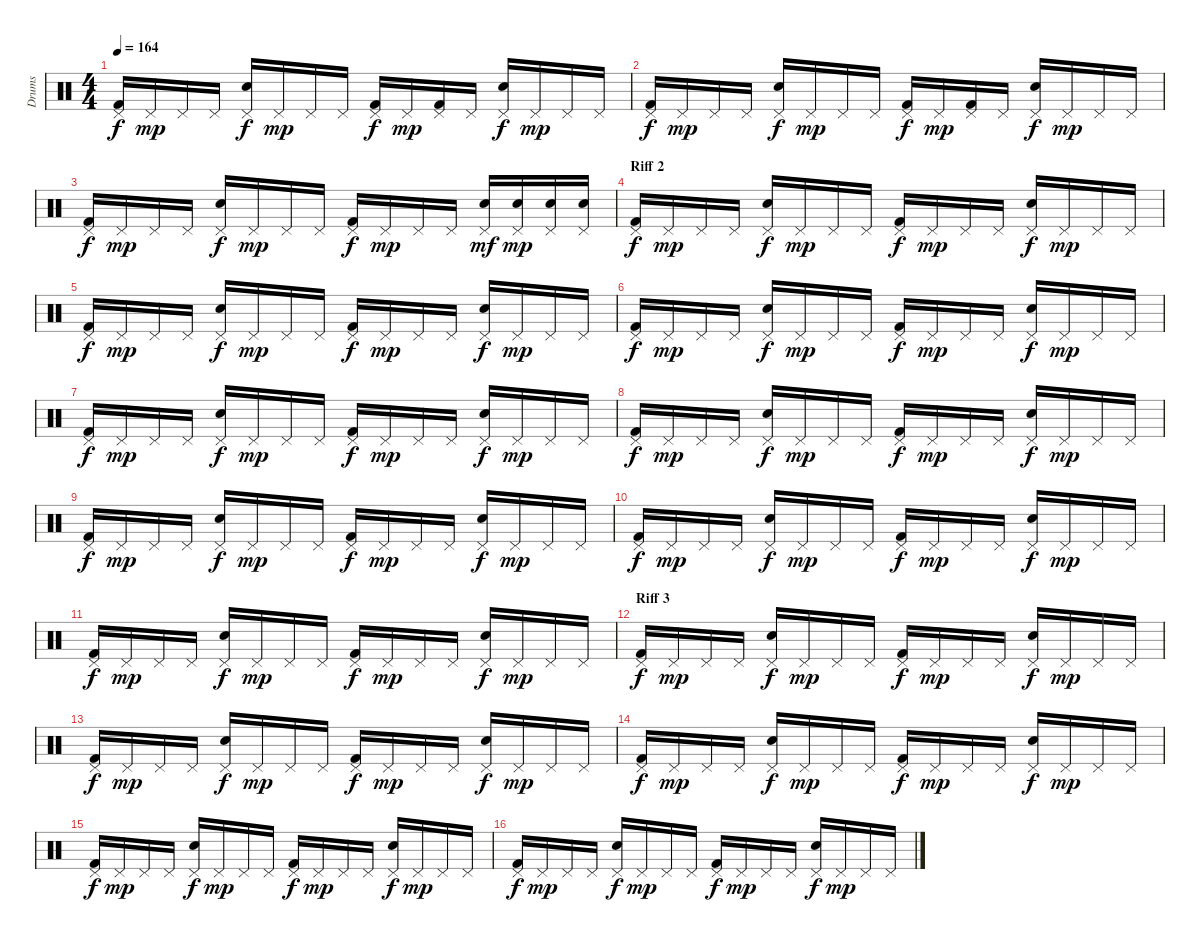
\track ("Drums" "Drums") {instrument percussion}
\staff {score}
\articulation defaults
\ts (4 4)
\tempo 164
\clef neutral
\ks c
("Pedal Hi-Hat (hit)" "Kick (hit) 2").16{dy f} "Pedal Hi-Hat (hit)".16{dy mp} "Pedal Hi-Hat (hit)".16 "Pedal Hi-Hat (hit)".16 ("Pedal Hi-Hat (hit)" "Snare (hit) 2").16{dy f} "Pedal Hi-Hat (hit)".16{dy mp} "Pedal Hi-Hat (hit)".16 "Pedal Hi-Hat (hit)".16 ("Pedal Hi-Hat (hit)" "Kick (hit) 2").16{dy f} "Pedal Hi-Hat (hit)".16{dy mp} ("Pedal Hi-Hat (hit)" "Kick (hit) 2").16 "Pedal Hi-Hat (hit)".16 ("Pedal Hi-Hat (hit)" "Snare (hit) 2").16{dy f} "Pedal Hi-Hat (hit)".16{dy mp} "Pedal Hi-Hat (hit)".16 "Pedal Hi-Hat (hit)".16 |
("Pedal Hi-Hat (hit)" "Kick (hit) 2").16{dy f} "Pedal Hi-Hat (hit)".16{dy mp} "Pedal Hi-Hat (hit)".16 "Pedal Hi-Hat (hit)".16 ("Pedal Hi-Hat (hit)" "Snare (hit) 2").16{dy f} "Pedal Hi-Hat (hit)".16{dy mp} "Pedal Hi-Hat (hit)".16 "Pedal Hi-Hat (hit)".16 ("Pedal Hi-Hat (hit)" "Kick (hit) 2").16{dy f} "Pedal Hi-Hat (hit)".16{dy mp} ("Pedal Hi-Hat (hit)" "Kick (hit) 2").16 "Pedal Hi-Hat (hit)".16 ("Pedal Hi-Hat (hit)" "Snare (hit) 2").16{dy f} "Pedal Hi-Hat (hit)".16{dy mp} "Pedal Hi-Hat (hit)".16 "Pedal Hi-Hat (hit)".16 |
("Pedal Hi-Hat (hit)" "Kick (hit) 2").16{dy f} "Pedal Hi-Hat (hit)".16{dy mp} "Pedal Hi-Hat (hit)".16 "Pedal Hi-Hat (hit)".16 ("Pedal Hi-Hat (hit)" "Snare (hit) 2").16{dy f} "Pedal Hi-Hat (hit)".16{dy mp} "Pedal Hi-Hat (hit)".16 "Pedal Hi-Hat (hit)".16 ("Pedal Hi-Hat (hit)" "Kick (hit) 2").16{dy f} "Pedal Hi-Hat (hit)".16{dy mp} "Pedal Hi-Hat (hit)".16 "Pedal Hi-Hat (hit)".16 ("Pedal Hi-Hat (hit)" "Snare (hit) 2").16{dy mf} ("Pedal Hi-Hat (hit)" "Snare (hit) 2").16{dy mp} ("Pedal Hi-Hat (hit)" "Snare (hit) 2").16 ("Pedal Hi-Hat (hit)" "Snare (hit) 2").16 |
\section ("" "Riff 2")
("Pedal Hi-Hat (hit)" "Kick (hit) 2").16{dy f} "Pedal Hi-Hat (hit)".16{dy mp} "Pedal Hi-Hat (hit)".16 "Pedal Hi-Hat (hit)".16 ("Pedal Hi-Hat (hit)" "Snare (hit) 2").16{dy f} "Pedal Hi-Hat (hit)".16{dy mp} "Pedal Hi-Hat (hit)".16 "Pedal Hi-Hat (hit)".16 ("Pedal Hi-Hat (hit)" "Kick (hit) 2").16{dy f} "Pedal Hi-Hat (hit)".16{dy mp} "Pedal Hi-Hat (hit)".16 "Pedal Hi-Hat (hit)".16 ("Pedal Hi-Hat (hit)" "Snare (hit) 2").16{dy f} "Pedal Hi-Hat (hit)".16{dy mp} "Pedal Hi-Hat (hit)".16 "Pedal Hi-Hat (hit)".16 |
("Pedal Hi-Hat (hit)" "Kick (hit) 2").16{dy f} "Pedal Hi-Hat (hit)".16{dy mp} "Pedal Hi-Hat (hit)".16 "Pedal Hi-Hat (hit)".16 ("Pedal Hi-Hat (hit)" "Snare (hit) 2").16{dy f} "Pedal Hi-Hat (hit)".16{dy mp} "Pedal Hi-Hat (hit)".16 "Pedal Hi-Hat (hit)".16 ("Pedal Hi-Hat (hit)" "Kick (hit) 2").16{dy f} "Pedal Hi-Hat (hit)".16{dy mp} "Pedal Hi-Hat (hit)".16 "Pedal Hi-Hat (hit)".16 ("Pedal Hi-Hat (hit)" "Snare (hit) 2").16{dy f} "Pedal Hi-Hat (hit)".16{dy mp} "Pedal Hi-Hat (hit)".16 "Pedal Hi-Hat (hit)".16 |
("Pedal Hi-Hat (hit)" "Kick (hit) 2").16{dy f} "Pedal Hi-Hat (hit)".16{dy mp} "Pedal Hi-Hat (hit)".16 "Pedal Hi-Hat (hit)".16 ("Pedal Hi-Hat (hit)" "Snare (hit) 2").16{dy f} "Pedal Hi-Hat (hit)".16{dy mp} "Pedal Hi-Hat (hit)".16 "Pedal Hi-Hat (hit)".16 ("Pedal Hi-Hat (hit)" "Kick (hit) 2").16{dy f} "Pedal Hi-Hat (hit)".16{dy mp} "Pedal Hi-Hat (hit)".16 "Pedal Hi-Hat (hit)".16 ("Pedal Hi-Hat (hit)" "Snare (hit) 2").16{dy f} "Pedal Hi-Hat (hit)".16{dy mp} "Pedal Hi-Hat (hit)".16 "Pedal Hi-Hat (hit)".16 |
("Pedal Hi-Hat (hit)" "Kick (hit) 2").16{dy f} "Pedal Hi-Hat (hit)".16{dy mp} "Pedal Hi-Hat (hit)".16 "Pedal Hi-Hat (hit)".16 ("Pedal Hi-Hat (hit)" "Snare (hit) 2").16{dy f} "Pedal Hi-Hat (hit)".16{dy mp} "Pedal Hi-Hat (hit)".16 "Pedal Hi-Hat (hit)".16 ("Pedal Hi-Hat (hit)" "Kick (hit) 2").16{dy f} "Pedal Hi-Hat (hit)".16{dy mp} "Pedal Hi-Hat (hit)".16 "Pedal Hi-Hat (hit)".16 ("Pedal Hi-Hat (hit)" "Snare (hit) 2").16{dy f} "Pedal Hi-Hat (hit)".16{dy mp} "Pedal Hi-Hat (hit)".16 "Pedal Hi-Hat (hit)".16 |
("Pedal Hi-Hat (hit)" "Kick (hit) 2").16{dy f} "Pedal Hi-Hat (hit)".16{dy mp} "Pedal Hi-Hat (hit)".16 "Pedal Hi-Hat (hit)".16 ("Pedal Hi-Hat (hit)" "Snare (hit) 2").16{dy f} "Pedal Hi-Hat (hit)".16{dy mp} "Pedal Hi-Hat (hit)".16 "Pedal Hi-Hat (hit)".16 ("Pedal Hi-Hat (hit)" "Kick (hit) 2").16{dy f} "Pedal Hi-Hat (hit)".16{dy mp} "Pedal Hi-Hat (hit)".16 "Pedal Hi-Hat (hit)".16 ("Pedal Hi-Hat (hit)" "Snare (hit) 2").16{dy f} "Pedal Hi-Hat (hit)".16{dy mp} "Pedal Hi-Hat (hit)".16 "Pedal Hi-Hat (hit)".16 |
("Pedal Hi-Hat (hit)" "Kick (hit) 2").16{dy f} "Pedal Hi-Hat (hit)".16{dy mp} "Pedal Hi-Hat (hit)".16 "Pedal Hi-Hat (hit)".16 ("Pedal Hi-Hat (hit)" "Snare (hit) 2").16{dy f} "Pedal Hi-Hat (hit)".16{dy mp} "Pedal Hi-Hat (hit)".16 "Pedal Hi-Hat (hit)".16 ("Pedal Hi-Hat (hit)" "Kick (hit) 2").16{dy f} "Pedal Hi-Hat (hit)".16{dy mp} "Pedal Hi-Hat (hit)".16 "Pedal Hi-Hat (hit)".16 ("Pedal Hi-Hat (hit)" "Snare (hit) 2").16{dy f} "Pedal Hi-Hat (hit)".16{dy mp} "Pedal Hi-Hat (hit)".16 "Pedal Hi-Hat (hit)".16 |
("Pedal Hi-Hat (hit)" "Kick (hit) 2").16{dy f} "Pedal Hi-Hat (hit)".16{dy mp} "Pedal Hi-Hat (hit)".16 "Pedal Hi-Hat (hit)".16 ("Pedal Hi-Hat (hit)" "Snare (hit) 2").16{dy f} "Pedal Hi-Hat (hit)".16{dy mp} "Pedal Hi-Hat (hit)".16 "Pedal Hi-Hat (hit)".16 ("Pedal Hi-Hat (hit)" "Kick (hit) 2").16{dy f} "Pedal Hi-Hat (hit)".16{dy mp} "Pedal Hi-Hat (hit)".16 "Pedal Hi-Hat (hit)".16 ("Pedal Hi-Hat (hit)" "Snare (hit) 2").16{dy f} "Pedal Hi-Hat (hit)".16{dy mp} "Pedal Hi-Hat (hit)".16 "Pedal Hi-Hat (hit)".16 |
("Pedal Hi-Hat (hit)" "Kick (hit) 2").16{dy f} "Pedal Hi-Hat (hit)".16{dy mp} "Pedal Hi-Hat (hit)".16 "Pedal Hi-Hat (hit)".16 ("Pedal Hi-Hat (hit)" "Snare (hit) 2").16{dy f} "Pedal Hi-Hat (hit)".16{dy mp} "Pedal Hi-Hat (hit)".16 "Pedal Hi-Hat (hit)".16 ("Pedal Hi-Hat (hit)" "Kick (hit) 2").16{dy f} "Pedal Hi-Hat (hit)".16{dy mp} "Pedal Hi-Hat (hit)".16 "Pedal Hi-Hat (hit)".16 ("Pedal Hi-Hat (hit)" "Snare (hit) 2").16{dy f} "Pedal Hi-Hat (hit)".16{dy mp} "Pedal Hi-Hat (hit)".16 "Pedal Hi-Hat (hit)".16 |
\section ("" "Riff 3")
("Pedal Hi-Hat (hit)" "Kick (hit) 2").16{dy f} "Pedal Hi-Hat (hit)".16{dy mp} "Pedal Hi-Hat (hit)".16 "Pedal Hi-Hat (hit)".16 ("Pedal Hi-Hat (hit)" "Snare (hit) 2").16{dy f} "Pedal Hi-Hat (hit)".16{dy mp} "Pedal Hi-Hat (hit)".16 "Pedal Hi-Hat (hit)".16 ("Pedal Hi-Hat (hit)" "Kick (hit) 2").16{dy f} "Pedal Hi-Hat (hit)".16{dy mp} "Pedal Hi-Hat (hit)".16 "Pedal Hi-Hat (hit)".16 ("Pedal Hi-Hat (hit)" "Snare (hit) 2").16{dy f} "Pedal Hi-Hat (hit)".16{dy mp} "Pedal Hi-Hat (hit)".16 "Pedal Hi-Hat (hit)".16 |
("Pedal Hi-Hat (hit)" "Kick (hit) 2").16{dy f} "Pedal Hi-Hat (hit)".16{dy mp} "Pedal Hi-Hat (hit)".16 "Pedal Hi-Hat (hit)".16 ("Pedal Hi-Hat (hit)" "Snare (hit) 2").16{dy f} "Pedal Hi-Hat (hit)".16{dy mp} "Pedal Hi-Hat (hit)".16 "Pedal Hi-Hat (hit)".16 ("Pedal Hi-Hat (hit)" "Kick (hit) 2").16{dy f} "Pedal Hi-Hat (hit)".16{dy mp} "Pedal Hi-Hat (hit)".16 "Pedal Hi-Hat (hit)".16 ("Pedal Hi-Hat (hit)" "Snare (hit) 2").16{dy f} "Pedal Hi-Hat (hit)".16{dy mp} "Pedal Hi-Hat (hit)".16 "Pedal Hi-Hat (hit)".16 |
("Pedal Hi-Hat (hit)" "Kick (hit) 2").16{dy f} "Pedal Hi-Hat (hit)".16{dy mp} "Pedal Hi-Hat (hit)".16 "Pedal Hi-Hat (hit)".16 ("Pedal Hi-Hat (hit)" "Snare (hit) 2").16{dy f} "Pedal Hi-Hat (hit)".16{dy mp} "Pedal Hi-Hat (hit)".16 "Pedal Hi-Hat (hit)".16 ("Pedal Hi-Hat (hit)" "Kick (hit) 2").16{dy f} "Pedal Hi-Hat (hit)".16{dy mp} "Pedal Hi-Hat (hit)".16 "Pedal Hi-Hat (hit)".16 ("Pedal Hi-Hat (hit)" "Snare (hit) 2").16{dy f} "Pedal Hi-Hat (hit)".16{dy mp} "Pedal Hi-Hat (hit)".16 "Pedal Hi-Hat (hit)".16 |
("Pedal Hi-Hat (hit)" "Kick (hit) 2").16{dy f} "Pedal Hi-Hat (hit)".16{dy mp} "Pedal Hi-Hat (hit)".16 "Pedal Hi-Hat (hit)".16 ("Pedal Hi-Hat (hit)" "Snare (hit) 2").16{dy f} "Pedal Hi-Hat (hit)".16{dy mp} "Pedal Hi-Hat (hit)".16 "Pedal Hi-Hat (hit)".16 ("Pedal Hi-Hat (hit)" "Kick (hit) 2").16{dy f} "Pedal Hi-Hat (hit)".16{dy mp} "Pedal Hi-Hat (hit)".16 "Pedal Hi-Hat (hit)".16 ("Pedal Hi-Hat (hit)" "Snare (hit) 2").16{dy f} "Pedal Hi-Hat (hit)".16{dy mp} "Pedal Hi-Hat (hit)".16 "Pedal Hi-Hat (hit)".16 |
("Pedal Hi-Hat (hit)" "Kick (hit) 2").16{dy f} "Pedal Hi-Hat (hit)".16{dy mp} "Pedal Hi-Hat (hit)".16 "Pedal Hi-Hat (hit)".16 ("Pedal Hi-Hat (hit)" "Snare (hit) 2").16{dy f} "Pedal Hi-Hat (hit)".16{dy mp} "Pedal Hi-Hat (hit)".16 "Pedal Hi-Hat (hit)".16 ("Pedal Hi-Hat (hit)" "Kick (hit) 2").16{dy f} "Pedal Hi-Hat (hit)".16{dy mp} "Pedal Hi-Hat (hit)".16 "Pedal Hi-Hat (hit)".16 ("Pedal Hi-Hat (hit)" "Snare (hit) 2").16{dy f} "Pedal Hi-Hat (hit)".16{dy mp} "Pedal Hi-Hat (hit)".16 "Pedal Hi-Hat (hit)".16
